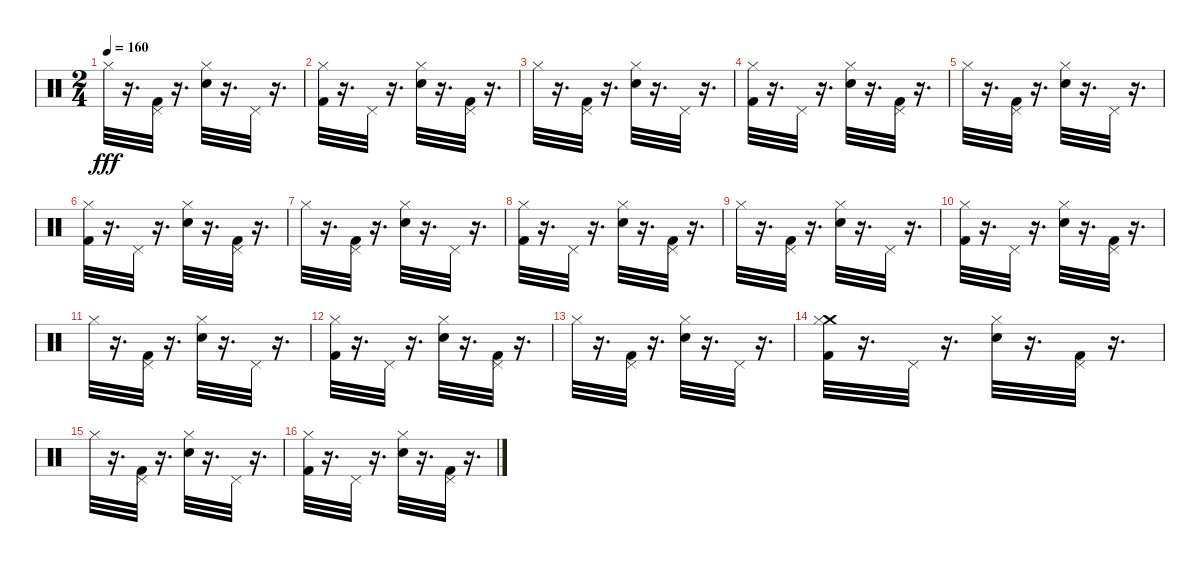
\track "" {instrument percussion}
\staff {score}
\articulation defaults
\ts (2 4)
\tempo 160
\clef neutral
\ks c "Hi-Hat (closed)".32{dy fff}
r.16{d} ("Pedal Hi-Hat (hit)" "Kick (hit) 2").32 r.16{d} ("Hi-Hat (closed)" "Snare (hit) 2").32 r.16{d} "Pedal Hi-Hat (hit)".32 r.16{d} |
("Hi-Hat (closed)" "Kick (hit) 2").32 r.16{d} "Pedal Hi-Hat (hit)".32 r.16{d} ("Hi-Hat (closed)" "Snare (hit) 2").32 r.16{d} ("Pedal Hi-Hat (hit)" "Kick (hit) 2").32 r.16{d} |
"Hi-Hat (closed)".32 r.16{d} ("Pedal Hi-Hat (hit)" "Kick (hit) 2").32 r.16{d} ("Hi-Hat (closed)" "Snare (hit) 2").32 r.16{d} "Pedal Hi-Hat (hit)".32 r.16{d} |
("Hi-Hat (closed)" "Kick (hit) 2").32 r.16{d} "Pedal Hi-Hat (hit)".32 r.16{d} ("Hi-Hat (closed)" "Snare (hit) 2").32 r.16{d} ("Pedal Hi-Hat (hit)" "Kick (hit) 2").32 r.16{d} |
"Hi-Hat (closed)".32 r.16{d} ("Pedal Hi-Hat (hit)" "Kick (hit) 2").32 r.16{d} ("Hi-Hat (closed)" "Snare (hit) 2").32 r.16{d} "Pedal Hi-Hat (hit)".32 r.16{d} |
("Hi-Hat (closed)" "Kick (hit) 2").32 r.16{d} "Pedal Hi-Hat (hit)".32 r.16{d} ("Hi-Hat (closed)" "Snare (hit) 2").32 r.16{d} ("Pedal Hi-Hat (hit)" "Kick (hit) 2").32 r.16{d} |
"Hi-Hat (closed)".32 r.16{d} ("Pedal Hi-Hat (hit)" "Kick (hit) 2").32 r.16{d} ("Hi-Hat (closed)" "Snare (hit) 2").32 r.16{d} "Pedal Hi-Hat (hit)".32 r.16{d} |
("Hi-Hat (closed)" "Kick (hit) 2").32 r.16{d} "Pedal Hi-Hat (hit)".32 r.16{d} ("Hi-Hat (closed)" "Snare (hit) 2").32 r.16{d} ("Pedal Hi-Hat (hit)" "Kick (hit) 2").32 r.16{d} |
"Hi-Hat (closed)".32 r.16{d} ("Pedal Hi-Hat (hit)" "Kick (hit) 2").32 r.16{d} ("Hi-Hat (closed)" "Snare (hit) 2").32 r.16{d} "Pedal Hi-Hat (hit)".32 r.16{d} |
("Hi-Hat (closed)" "Kick (hit) 2").32 r.16{d} "Pedal Hi-Hat (hit)".32 r.16{d} ("Hi-Hat (closed)" "Snare (hit) 2").32 r.16{d} ("Pedal Hi-Hat (hit)" "Kick (hit) 2").32 r.16{d} |
"Hi-Hat (closed)".32 r.16{d} ("Pedal Hi-Hat (hit)" "Kick (hit) 2").32 r.16{d} ("Hi-Hat (closed)" "Snare (hit) 2").32 r.16{d} "Pedal Hi-Hat (hit)".32 r.16{d} |
("Hi-Hat (closed)" "Kick (hit) 2").32 r.16{d} "Pedal Hi-Hat (hit)".32 r.16{d} ("Hi-Hat (closed)" "Snare (hit) 2").32 r.16{d} ("Pedal Hi-Hat (hit)" "Kick (hit) 2").32 r.16{d} |
"Hi-Hat (closed)".32 r.16{d} ("Pedal Hi-Hat (hit)" "Kick (hit) 2").32 r.16{d} ("Hi-Hat (closed)" "Snare (hit) 2").32 r.16{d} "Pedal Hi-Hat (hit)".32 r.16{d} |
("Crash medium (hit)" "Hi-Hat (closed)" "Kick (hit) 2").32 r.16{d} "Pedal Hi-Hat (hit)".32 r.16{d} ("Hi-Hat (closed)" "Snare (hit) 2").32 r.16{d} ("Pedal Hi-Hat (hit)" "Kick (hit) 2").32 r.16{d} |
"Hi-Hat (closed)".32 r.16{d} ("Pedal Hi-Hat (hit)" "Kick (hit) 2").32 r.16{d} ("Hi-Hat (closed)" "Snare (hit) 2").32 r.16{d} "Pedal Hi-Hat (hit)".32 r.16{d} |
("Hi-Hat (closed)" "Kick (hit) 2").32 r.16{d} "Pedal Hi-Hat (hit)".32 r.16{d} ("Hi-Hat (closed)" "Snare (hit) 2").32 r.16{d} ("Pedal Hi-Hat (hit)" "Kick (hit) 2").32 r.16{d}
